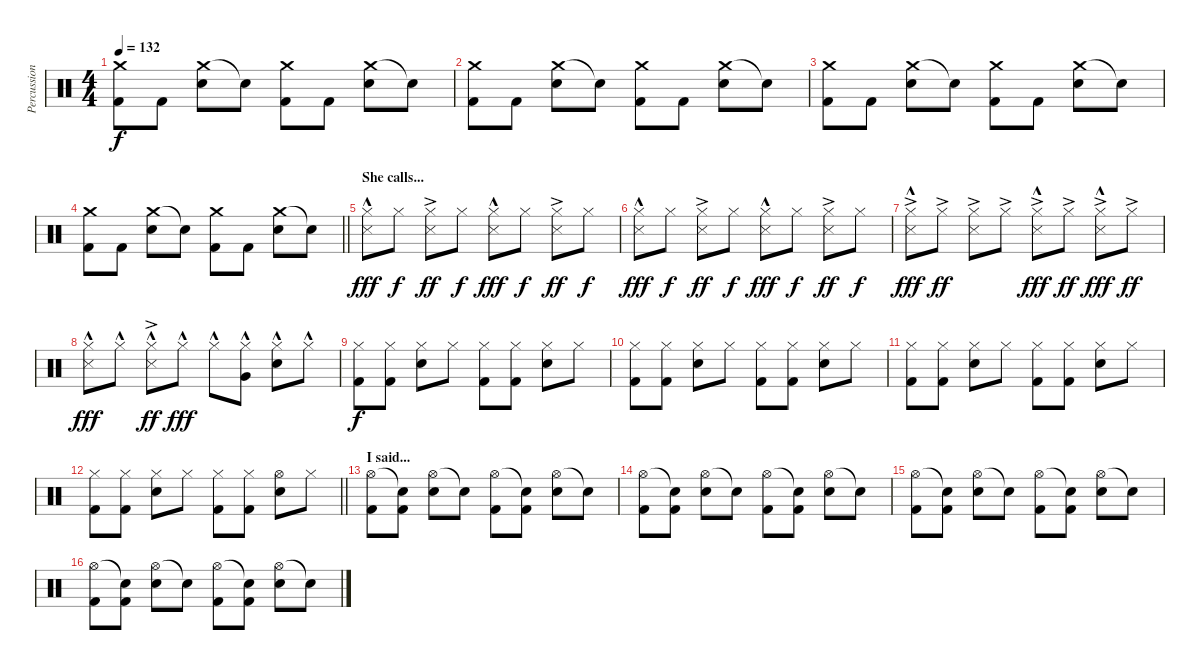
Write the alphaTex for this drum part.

\track ("Percussioni" "Percussion") {instrument percussion}
\staff {score}
\articulation defaults
\ts (4 4)
\tempo 132
\clef neutral
\ks c
("Crash medium (hit)" "Kick (hit) 2").8{dy f} "Kick (hit) 2".8 ("Crash medium (hit)" "Snare (hit) 2").8 "Snare (hit)"{t}.8 ("Crash medium (hit)" "Kick (hit) 2").8 "Kick (hit) 2".8 ("Crash medium (hit)" "Snare (hit) 2").8 "Snare (hit)"{t}.8 |
("Crash medium (hit)" "Kick (hit) 2").8 "Kick (hit) 2".8 ("Crash medium (hit)" "Snare (hit) 2").8 "Snare (hit)"{t}.8 ("Crash medium (hit)" "Kick (hit) 2").8 "Kick (hit) 2".8 ("Crash medium (hit)" "Snare (hit) 2").8 "Snare (hit)"{t}.8 |
("Crash medium (hit)" "Kick (hit) 2").8 "Kick (hit) 2".8 ("Crash medium (hit)" "Snare (hit) 2").8 "Snare (hit)"{t}.8 ("Crash medium (hit)" "Kick (hit) 2").8 "Kick (hit) 2".8 ("Crash medium (hit)" "Snare (hit) 2").8 "Snare (hit)"{t}.8 |
\barLineRight lightlight
("Crash medium (hit)" "Kick (hit) 2").8 "Kick (hit) 2".8 ("Crash medium (hit)" "Snare (hit) 2").8 "Snare (hit)"{t}.8 ("Crash medium (hit)" "Kick (hit) 2").8 "Kick (hit) 2".8 ("Crash medium (hit)" "Snare (hit) 2").8 "Snare (hit)"{t}.8 |
\section ("" "She calls...")
("Hi-Hat (closed)" "Snare (side stick) 3"{hac}).8{dy fff} "Hi-Hat (closed)".8{dy f} ("Hi-Hat (closed)" "Snare (side stick) 3"{ac}).8{dy ff} "Hi-Hat (closed)".8{dy f} ("Hi-Hat (closed)" "Snare (side stick) 3"{hac}).8{dy fff} "Hi-Hat (closed)".8{dy f} ("Hi-Hat (closed)" "Snare (side stick) 3"{ac}).8{dy ff} "Hi-Hat (closed)".8{dy f} |
("Hi-Hat (closed)" "Snare (side stick) 3"{hac}).8{dy fff} "Hi-Hat (closed)".8{dy f} ("Hi-Hat (closed)" "Snare (side stick) 3"{ac}).8{dy ff} "Hi-Hat (closed)".8{dy f} ("Hi-Hat (closed)" "Snare (side stick) 3"{hac}).8{dy fff} "Hi-Hat (closed)".8{dy f} ("Hi-Hat (closed)" "Snare (side stick) 3"{ac}).8{dy ff} "Hi-Hat (closed)".8{dy f} |
("Hi-Hat (closed)"{ac} "Snare (side stick) 3"{hac}).8{dy fff} "Hi-Hat (closed)"{ac}.8{dy ff} ("Hi-Hat (closed)"{ac} "Snare (side stick) 3"{ac}).8 "Hi-Hat (closed)"{ac}.8 ("Hi-Hat (closed)"{ac} "Snare (side stick) 3"{hac}).8{dy fff} "Hi-Hat (closed)"{ac}.8{dy ff} ("Hi-Hat (closed)"{ac} "Snare (side stick) 3"{hac}).8{dy fff} "Hi-Hat (closed)"{ac}.8{dy ff} |
("Hi-Hat (closed)"{hac} "Snare (side stick) 3"{hac}).8{dy fff} "Hi-Hat (closed)"{hac}.8 ("Hi-Hat (closed)"{hac} "Snare (side stick) 3"{ac}).8{dy ff} "Hi-Hat (closed)"{hac}.8{dy fff} "Hi-Hat (closed)"{hac}.8 ("Hi-Hat (closed)"{hac} "Very Low Tom (hit)"{hac}).8 ("Hi-Hat (closed)"{hac} "Snare (hit) 2"{hac}).8 "Hi-Hat (closed)"{hac}.8 |
("Hi-Hat (closed)" "Kick (hit) 2").8{dy f} ("Hi-Hat (closed)" "Kick (hit) 2").8 ("Hi-Hat (closed)" "Snare (hit) 2").8 "Hi-Hat (closed)".8 ("Hi-Hat (closed)" "Kick (hit) 2").8 ("Hi-Hat (closed)" "Kick (hit) 2").8 ("Hi-Hat (closed)" "Snare (hit) 2").8 "Hi-Hat (closed)".8 |
("Hi-Hat (closed)" "Kick (hit) 2").8 ("Hi-Hat (closed)" "Kick (hit) 2").8 ("Hi-Hat (closed)" "Snare (hit) 2").8 "Hi-Hat (closed)".8 ("Hi-Hat (closed)" "Kick (hit) 2").8 ("Hi-Hat (closed)" "Kick (hit) 2").8 ("Hi-Hat (closed)" "Snare (hit) 2").8 "Hi-Hat (closed)".8 |
("Hi-Hat (closed)" "Kick (hit) 2").8 ("Hi-Hat (closed)" "Kick (hit) 2").8 ("Hi-Hat (closed)" "Snare (hit) 2").8 "Hi-Hat (closed)".8 ("Hi-Hat (closed)" "Kick (hit) 2").8 ("Hi-Hat (closed)" "Kick (hit) 2").8 ("Hi-Hat (closed)" "Snare (hit) 2").8 "Hi-Hat (closed)".8 |
\barLineRight lightlight
("Hi-Hat (closed)" "Kick (hit) 2").8 ("Hi-Hat (closed)" "Kick (hit) 2").8 ("Hi-Hat (closed)" "Snare (hit) 2").8 "Hi-Hat (closed)".8 ("Hi-Hat (closed)" "Kick (hit) 2").8 ("Hi-Hat (closed)" "Kick (hit) 2").8 ("Hi-Hat (open)" "Snare (hit) 2").8 "Hi-Hat (closed)".8 |
\section ("" "I said...")
("Hi-Hat (open)" "Kick (hit) 2").8 ("Snare (hit)"{t} "Kick (hit) 2").8 ("Hi-Hat (open)" "Snare (hit) 2").8 "Snare (hit)"{t}.8 ("Hi-Hat (open)" "Kick (hit) 2").8 ("Snare (hit)"{t} "Kick (hit) 2").8 ("Hi-Hat (open)" "Snare (hit) 2").8 "Snare (hit)"{t}.8 |
("Hi-Hat (open)" "Kick (hit) 2").8 ("Snare (hit)"{t} "Kick (hit) 2").8 ("Hi-Hat (open)" "Snare (hit) 2").8 "Snare (hit)"{t}.8 ("Hi-Hat (open)" "Kick (hit) 2").8 ("Snare (hit)"{t} "Kick (hit) 2").8 ("Hi-Hat (open)" "Snare (hit) 2").8 "Snare (hit)"{t}.8 |
("Hi-Hat (open)" "Kick (hit) 2").8 ("Snare (hit)"{t} "Kick (hit) 2").8 ("Hi-Hat (open)" "Snare (hit) 2").8 "Snare (hit)"{t}.8 ("Hi-Hat (open)" "Kick (hit) 2").8 ("Snare (hit)"{t} "Kick (hit) 2").8 ("Hi-Hat (open)" "Snare (hit) 2").8 "Snare (hit)"{t}.8 |
("Hi-Hat (open)" "Kick (hit) 2").8 ("Snare (hit)"{t} "Kick (hit) 2").8 ("Hi-Hat (open)" "Snare (hit) 2").8 "Snare (hit)"{t}.8 ("Hi-Hat (open)" "Kick (hit) 2").8 ("Snare (hit)"{t} "Kick (hit) 2").8 ("Hi-Hat (open)" "Snare (hit) 2").8 "Snare (hit)"{t}.8
